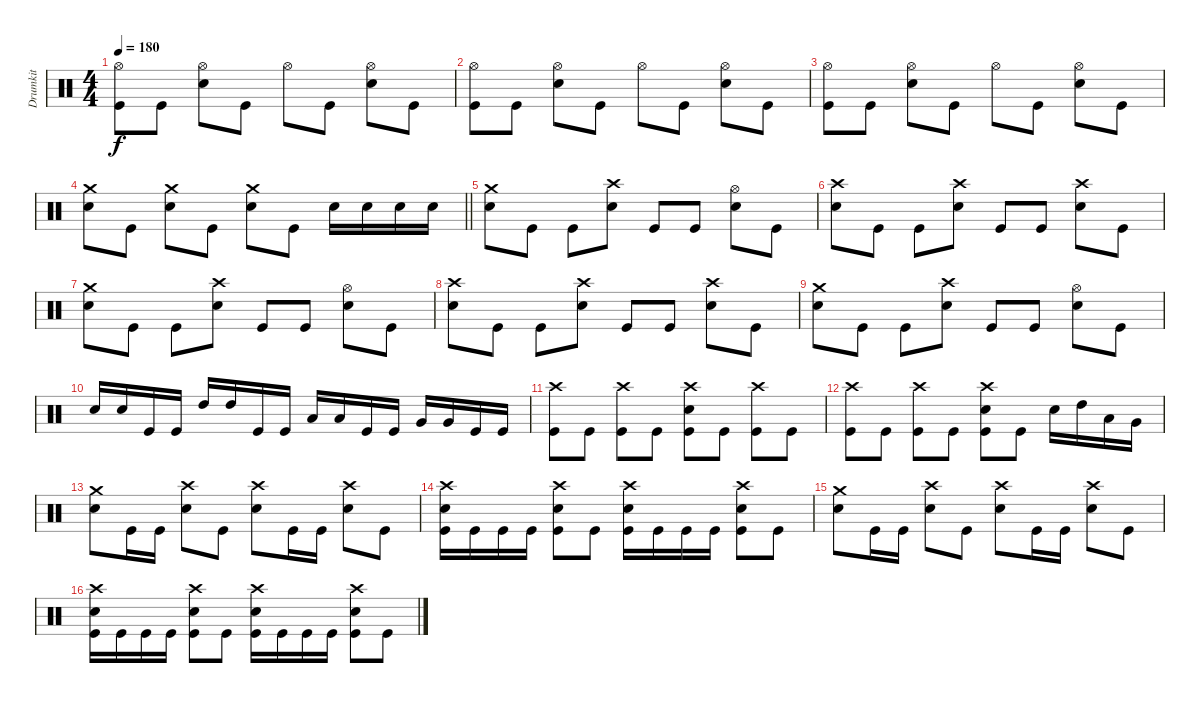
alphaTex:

\track ("Drumkit" "Drumkit") {instrument percussion}
\staff {score}
\articulation defaults
\ts (4 4)
\tempo 180
\clef neutral
\ks c
("Hi-Hat (open)" "Kick (hit)").8{dy f} "Kick (hit)".8 ("Hi-Hat (open)" "Snare (hit) 2").8 "Kick (hit)".8 "Hi-Hat (open)".8 "Kick (hit)".8 ("Hi-Hat (open)" "Snare (hit) 2").8 "Kick (hit)".8 |
("Hi-Hat (open)" "Kick (hit)").8 "Kick (hit)".8 ("Hi-Hat (open)" "Snare (hit) 2").8 "Kick (hit)".8 "Hi-Hat (open)".8 "Kick (hit)".8 ("Hi-Hat (open)" "Snare (hit) 2").8 "Kick (hit)".8 |
("Hi-Hat (open)" "Kick (hit)").8 "Kick (hit)".8 ("Hi-Hat (open)" "Snare (hit) 2").8 "Kick (hit)".8 "Hi-Hat (open)".8 "Kick (hit)".8 ("Hi-Hat (open)" "Snare (hit) 2").8 "Kick (hit)".8 |
\barLineRight lightlight
("Crash medium (hit)" "Snare (hit) 2").8 "Kick (hit)".8 ("Crash medium (hit)" "Snare (hit) 2").8 "Kick (hit)".8 ("Crash medium (hit)" "Snare (hit) 2").8 "Kick (hit)".8 "Snare (hit) 2".16 "Snare (hit) 2".16 "Snare (hit) 2".16 "Snare (hit) 2".16 |
("Crash medium (hit)" "Snare (hit) 2").8 "Kick (hit)".8 "Kick (hit)".8 ("Crash high (hit)" "Snare (hit) 2").8 "Kick (hit)".8 "Kick (hit)".8 ("Hi-Hat (open)" "Snare (hit) 2").8 "Kick (hit)".8 |
("Crash high (hit)" "Snare (hit) 2").8 "Kick (hit)".8 "Kick (hit)".8 ("Crash high (hit)" "Snare (hit) 2").8 "Kick (hit)".8 "Kick (hit)".8 ("Crash high (hit)" "Snare (hit) 2").8 "Kick (hit)".8 |
("Crash medium (hit)" "Snare (hit) 2").8 "Kick (hit)".8 "Kick (hit)".8 ("Crash high (hit)" "Snare (hit) 2").8 "Kick (hit)".8 "Kick (hit)".8 ("Hi-Hat (open)" "Snare (hit) 2").8 "Kick (hit)".8 |
("Crash high (hit)" "Snare (hit) 2").8 "Kick (hit)".8 "Kick (hit)".8 ("Crash high (hit)" "Snare (hit) 2").8 "Kick (hit)".8 "Kick (hit)".8 ("Crash high (hit)" "Snare (hit) 2").8 "Kick (hit)".8 |
("Crash medium (hit)" "Snare (hit) 2").8 "Kick (hit)".8 "Kick (hit)".8 ("Crash high (hit)" "Snare (hit) 2").8 "Kick (hit)".8 "Kick (hit)".8 ("Hi-Hat (open)" "Snare (hit) 2").8 "Kick (hit)".8 |
"Snare (hit) 2".16 "Snare (hit) 2".16 "Kick (hit)".16 "Kick (hit)".16 "High Tom (hit)".16 "High Tom (hit)".16 "Kick (hit)".16 "Kick (hit)".16 "Low Tom (hit)".16 "Low Tom (hit)".16 "Kick (hit)".16 "Kick (hit)".16 "Very Low Tom (hit)".16 "Very Low Tom (hit)".16 "Kick (hit)".16 "Kick (hit)".16 |
("Crash high (hit)" "Kick (hit)").8 "Kick (hit)".8 ("Crash high (hit)" "Kick (hit)").8 "Kick (hit)".8 ("Crash high (hit)" "Snare (hit) 2" "Kick (hit)").8 "Kick (hit)".8 ("Crash high (hit)" "Kick (hit)").8 "Kick (hit)".8 |
("Crash high (hit)" "Kick (hit)").8 "Kick (hit)".8 ("Crash high (hit)" "Kick (hit)").8 "Kick (hit)".8 ("Crash high (hit)" "Snare (hit) 2" "Kick (hit)").8 "Kick (hit)".8 "Snare (hit) 2".16 "High Tom (hit)".16 "Low Tom (hit)".16 "Very Low Tom (hit)".16 |
("Crash medium (hit)" "Snare (hit) 2").8 "Kick (hit)".16 "Kick (hit)".16 ("Crash high (hit)" "Snare (hit) 2").8 "Kick (hit)".8 ("Crash high (hit)" "Snare (hit) 2").8 "Kick (hit)".16 "Kick (hit)".16 ("Crash high (hit)" "Snare (hit) 2").8 "Kick (hit)".8 |
("Crash high (hit)" "Snare (hit) 2" "Kick (hit)").16 "Kick (hit)".16 "Kick (hit)".16 "Kick (hit)".16 ("Crash high (hit)" "Snare (hit) 2" "Kick (hit)").8 "Kick (hit)".8 ("Crash high (hit)" "Snare (hit) 2" "Kick (hit)").16 "Kick (hit)".16 "Kick (hit)".16 "Kick (hit)".16 ("Crash high (hit)" "Snare (hit) 2" "Kick (hit)").8 "Kick (hit)".8 |
("Crash medium (hit)" "Snare (hit) 2").8 "Kick (hit)".16 "Kick (hit)".16 ("Crash high (hit)" "Snare (hit) 2").8 "Kick (hit)".8 ("Crash high (hit)" "Snare (hit) 2").8 "Kick (hit)".16 "Kick (hit)".16 ("Crash high (hit)" "Snare (hit) 2").8 "Kick (hit)".8 |
("Crash high (hit)" "Snare (hit) 2" "Kick (hit)").16 "Kick (hit)".16 "Kick (hit)".16 "Kick (hit)".16 ("Crash high (hit)" "Snare (hit) 2" "Kick (hit)").8 "Kick (hit)".8 ("Crash high (hit)" "Snare (hit) 2" "Kick (hit)").16 "Kick (hit)".16 "Kick (hit)".16 "Kick (hit)".16 ("Crash high (hit)" "Snare (hit) 2" "Kick (hit)").8 "Kick (hit)".8
